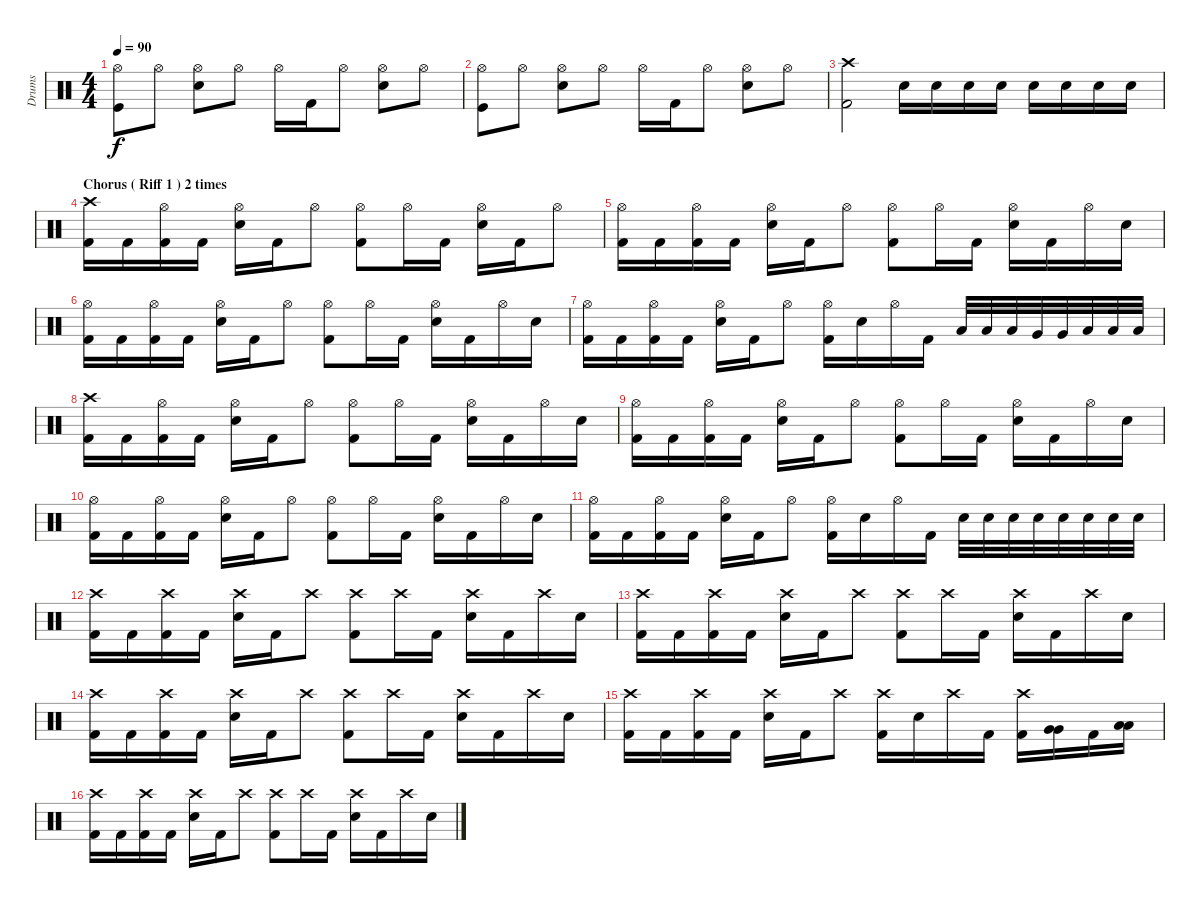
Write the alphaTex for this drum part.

\track ("Drums" "Drums") {instrument percussion}
\staff {score}
\articulation defaults
\ts (4 4)
\tempo 90
\clef neutral
\ks c
("Hi-Hat (open)" "Kick (hit)").8{dy f} "Hi-Hat (open)".8 ("Hi-Hat (open)" "Snare (hit) 2").8 "Hi-Hat (open)".8 "Hi-Hat (open)".16 "Kick (hit) 2".16 "Hi-Hat (open)".8 ("Hi-Hat (open)" "Snare (hit) 2").8 "Hi-Hat (open)".8 |
("Hi-Hat (open)" "Kick (hit)").8 "Hi-Hat (open)".8 ("Hi-Hat (open)" "Snare (hit) 2").8 "Hi-Hat (open)".8 "Hi-Hat (open)".16 "Kick (hit) 2".16 "Hi-Hat (open)".8 ("Hi-Hat (open)" "Snare (hit) 2").8 "Hi-Hat (open)".8 |
("Crash high (hit)" "Kick (hit) 2").2{volume 16} "Electric Snare (hit)".16 "Electric Snare (hit)".16 "Electric Snare (hit)".16 "Electric Snare (hit)".16 "Electric Snare (hit)".16 "Electric Snare (hit)".16 "Electric Snare (hit)".16 "Electric Snare (hit)".16 |
\section ("" "Chorus ( Riff 1 ) 2 times")
("Crash high (hit)" "Kick (hit) 2").16 "Kick (hit) 2".16 ("Hi-Hat (open)" "Kick (hit) 2").16 "Kick (hit) 2".16 ("Hi-Hat (open)" "Electric Snare (hit)").16 "Kick (hit) 2".16 "Hi-Hat (open)".8 ("Hi-Hat (open)" "Kick (hit) 2").8 "Hi-Hat (open)".16 "Kick (hit) 2".16 ("Hi-Hat (open)" "Electric Snare (hit)").16 "Kick (hit) 2".16 "Hi-Hat (open)".8 |
("Hi-Hat (open)" "Kick (hit) 2").16 "Kick (hit) 2".16 ("Hi-Hat (open)" "Kick (hit) 2").16 "Kick (hit) 2".16 ("Hi-Hat (open)" "Electric Snare (hit)").16 "Kick (hit) 2".16 "Hi-Hat (open)".8 ("Hi-Hat (open)" "Kick (hit) 2").8 "Hi-Hat (open)".16 "Kick (hit) 2".16 ("Hi-Hat (open)" "Electric Snare (hit)").16 "Kick (hit) 2".16 "Hi-Hat (open)".16 "Electric Snare (hit)".16 |
("Hi-Hat (open)" "Kick (hit) 2").16 "Kick (hit) 2".16 ("Hi-Hat (open)" "Kick (hit) 2").16 "Kick (hit) 2".16 ("Hi-Hat (open)" "Electric Snare (hit)").16 "Kick (hit) 2".16 "Hi-Hat (open)".8 ("Hi-Hat (open)" "Kick (hit) 2").8 "Hi-Hat (open)".16 "Kick (hit) 2".16 ("Hi-Hat (open)" "Electric Snare (hit)").16 "Kick (hit) 2".16 "Hi-Hat (open)".16 "Electric Snare (hit)".16 |
("Hi-Hat (open)" "Kick (hit) 2").16 "Kick (hit) 2".16 ("Hi-Hat (open)" "Kick (hit) 2").16 "Kick (hit) 2".16 ("Hi-Hat (open)" "Electric Snare (hit)").16 "Kick (hit) 2".16 "Hi-Hat (open)".8 ("Hi-Hat (open)" "Kick (hit) 2").16 "Electric Snare (hit)".16 "Hi-Hat (open)".16 "Kick (hit) 2".16 "Low Tom (hit)".32 "Low Tom (hit)".32 "Low Tom (hit)".32 "Very Low Tom (hit)".32 "Very Low Tom (hit)".32 "Low Floor Tom (hit)".32 "Low Floor Tom (hit)".32 "Low Floor Tom (hit)".32 |
("Crash high (hit)" "Kick (hit) 2").16 "Kick (hit) 2".16 ("Hi-Hat (open)" "Kick (hit) 2").16 "Kick (hit) 2".16 ("Hi-Hat (open)" "Electric Snare (hit)").16 "Kick (hit) 2".16 "Hi-Hat (open)".8 ("Hi-Hat (open)" "Kick (hit) 2").8 "Hi-Hat (open)".16 "Kick (hit) 2".16 ("Hi-Hat (open)" "Electric Snare (hit)").16 "Kick (hit) 2".16 "Hi-Hat (open)".16 "Electric Snare (hit)".16 |
("Hi-Hat (open)" "Kick (hit) 2").16 "Kick (hit) 2".16 ("Hi-Hat (open)" "Kick (hit) 2").16 "Kick (hit) 2".16 ("Hi-Hat (open)" "Electric Snare (hit)").16 "Kick (hit) 2".16 "Hi-Hat (open)".8 ("Hi-Hat (open)" "Kick (hit) 2").8 "Hi-Hat (open)".16 "Kick (hit) 2".16 ("Hi-Hat (open)" "Electric Snare (hit)").16 "Kick (hit) 2".16 "Hi-Hat (open)".16 "Electric Snare (hit)".16 |
("Hi-Hat (open)" "Kick (hit) 2").16 "Kick (hit) 2".16 ("Hi-Hat (open)" "Kick (hit) 2").16 "Kick (hit) 2".16 ("Hi-Hat (open)" "Electric Snare (hit)").16 "Kick (hit) 2".16 "Hi-Hat (open)".8 ("Hi-Hat (open)" "Kick (hit) 2").8 "Hi-Hat (open)".16 "Kick (hit) 2".16 ("Hi-Hat (open)" "Electric Snare (hit)").16 "Kick (hit) 2".16 "Hi-Hat (open)".16 "Electric Snare (hit)".16 |
("Hi-Hat (open)" "Kick (hit) 2").16 "Kick (hit) 2".16 ("Hi-Hat (open)" "Kick (hit) 2").16 "Kick (hit) 2".16 ("Hi-Hat (open)" "Electric Snare (hit)").16 "Kick (hit) 2".16 "Hi-Hat (open)".8 ("Hi-Hat (open)" "Kick (hit) 2").16 "Electric Snare (hit)".16 "Hi-Hat (open)".16 "Kick (hit) 2".16 "Electric Snare (hit)".32 "Electric Snare (hit)".32 "Electric Snare (hit)".32 "Electric Snare (hit)".32 "Electric Snare (hit)".32 "Electric Snare (hit)".32 "Electric Snare (hit)".32 "Electric Snare (hit)".32 |
("Crash high (hit)" "Kick (hit) 2").16 "Kick (hit) 2".16 ("Crash high (hit)" "Kick (hit) 2").16 "Kick (hit) 2".16 ("Crash high (hit)" "Electric Snare (hit)").16 "Kick (hit) 2".16 "Crash high (hit)".8 ("Crash high (hit)" "Kick (hit) 2").8 "Crash high (hit)".16 "Kick (hit) 2".16 ("Crash high (hit)" "Electric Snare (hit)").16 "Kick (hit) 2".16 "Crash high (hit)".16 "Electric Snare (hit)".16 |
("Crash high (hit)" "Kick (hit) 2").16 "Kick (hit) 2".16 ("Crash high (hit)" "Kick (hit) 2").16 "Kick (hit) 2".16 ("Crash high (hit)" "Electric Snare (hit)").16 "Kick (hit) 2".16 "Crash high (hit)".8 ("Crash high (hit)" "Kick (hit) 2").8 "Crash high (hit)".16 "Kick (hit) 2".16 ("Crash high (hit)" "Electric Snare (hit)").16 "Kick (hit) 2".16 "Crash high (hit)".16 "Electric Snare (hit)".16 |
("Crash high (hit)" "Kick (hit) 2").16 "Kick (hit) 2".16 ("Crash high (hit)" "Kick (hit) 2").16 "Kick (hit) 2".16 ("Crash high (hit)" "Electric Snare (hit)").16 "Kick (hit) 2".16 "Crash high (hit)".8 ("Crash high (hit)" "Kick (hit) 2").8 "Crash high (hit)".16 "Kick (hit) 2".16 ("Crash high (hit)" "Electric Snare (hit)").16 "Kick (hit) 2".16 "Crash high (hit)".16 "Electric Snare (hit)".16 |
("Crash high (hit)" "Kick (hit) 2").16 "Kick (hit) 2".16 ("Crash high (hit)" "Kick (hit) 2").16 "Kick (hit) 2".16 ("Crash high (hit)" "Electric Snare (hit)").16 "Kick (hit) 2".16 "Crash high (hit)".8 ("Crash high (hit)" "Kick (hit) 2").16 "Electric Snare (hit)".16 "Crash high (hit)".16 "Kick (hit) 2".16 ("Crash high (hit)" "Kick (hit) 2").16 ("Very Low Tom (hit)" "Very Low Tom (hit)").16 "Kick (hit) 2".16 ("Low Floor Tom (hit)" "Low Floor Tom (hit)").16 |
("Crash high (hit)" "Kick (hit) 2").16 "Kick (hit) 2".16 ("Crash high (hit)" "Kick (hit) 2").16 "Kick (hit) 2".16 ("Crash high (hit)" "Electric Snare (hit)").16 "Kick (hit) 2".16 "Crash high (hit)".8 ("Crash high (hit)" "Kick (hit) 2").8 "Crash high (hit)".16 "Kick (hit) 2".16 ("Crash high (hit)" "Electric Snare (hit)").16 "Kick (hit) 2".16 "Crash high (hit)".16 "Electric Snare (hit)".16
